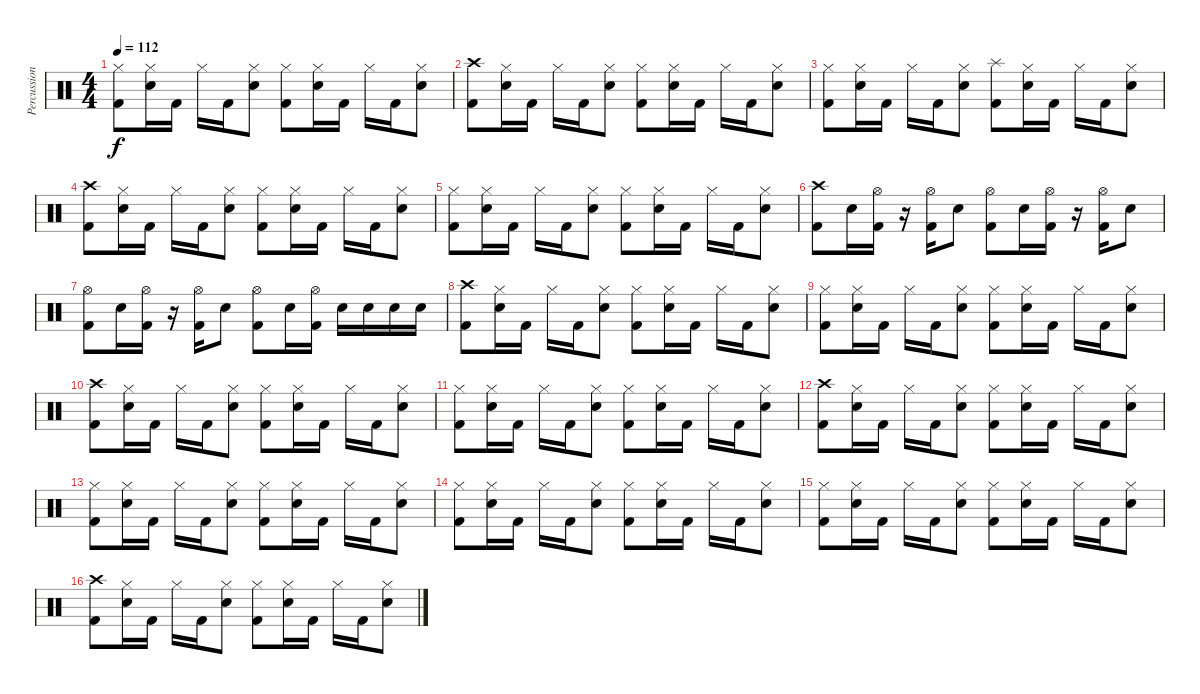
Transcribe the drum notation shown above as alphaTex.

\track ("Percussion" "Percussion") {instrument percussion}
\staff {score}
\articulation defaults
\ts (4 4)
\tempo 112
\clef neutral
\ks c
("Hi-Hat (closed)" "Kick (hit) 2").8{dy f} ("Hi-Hat (closed)" "Snare (hit) 2").16 "Kick (hit) 2".16 "Hi-Hat (closed)".16 "Kick (hit) 2".16 ("Hi-Hat (closed)" "Snare (hit) 2").8 ("Hi-Hat (closed)" "Kick (hit) 2").8 ("Hi-Hat (closed)" "Snare (hit) 2").16 "Kick (hit) 2".16 "Hi-Hat (closed)".16 "Kick (hit) 2".16 ("Hi-Hat (closed)" "Snare (hit) 2").8 |
("Crash high (hit)" "Kick (hit) 2").8 ("Hi-Hat (closed)" "Snare (hit) 2").16 "Kick (hit) 2".16 "Hi-Hat (closed)".16 "Kick (hit) 2".16 ("Hi-Hat (closed)" "Snare (hit) 2").8 ("Hi-Hat (closed)" "Kick (hit) 2").8 ("Hi-Hat (closed)" "Snare (hit) 2").16 "Kick (hit) 2".16 "Hi-Hat (closed)".16 "Kick (hit) 2".16 ("Hi-Hat (closed)" "Snare (hit) 2").8 |
("Hi-Hat (closed)" "Kick (hit) 2").8 ("Hi-Hat (closed)" "Snare (hit) 2").16 "Kick (hit) 2".16 "Hi-Hat (closed)".16 "Kick (hit) 2".16 ("Hi-Hat (closed)" "Snare (hit) 2").8 ("Splash (hit)" "Kick (hit) 2").8 ("Hi-Hat (closed)" "Snare (hit) 2").16 "Kick (hit) 2".16 "Hi-Hat (closed)".16 "Kick (hit) 2".16 ("Hi-Hat (closed)" "Snare (hit) 2").8 |
("Crash high (hit)" "Kick (hit) 2").8 ("Hi-Hat (closed)" "Snare (hit) 2").16 "Kick (hit) 2".16 "Hi-Hat (closed)".16 "Kick (hit) 2".16 ("Hi-Hat (closed)" "Snare (hit) 2").8 ("Hi-Hat (closed)" "Kick (hit) 2").8 ("Hi-Hat (closed)" "Snare (hit) 2").16 "Kick (hit) 2".16 "Hi-Hat (closed)".16 "Kick (hit) 2".16 ("Hi-Hat (closed)" "Snare (hit) 2").8 |
("Hi-Hat (closed)" "Kick (hit) 2").8 ("Hi-Hat (closed)" "Snare (hit) 2").16 "Kick (hit) 2".16 "Hi-Hat (closed)".16 "Kick (hit) 2".16 ("Hi-Hat (closed)" "Snare (hit) 2").8 ("Hi-Hat (closed)" "Kick (hit) 2").8 ("Hi-Hat (closed)" "Snare (hit) 2").16 "Kick (hit) 2".16 "Hi-Hat (closed)".16 "Kick (hit) 2".16 ("Hi-Hat (closed)" "Snare (hit) 2").8 |
("Crash high (hit)" "Kick (hit) 2").8 "Snare (hit) 2".16 ("Hi-Hat (open)" "Kick (hit) 2").16 r.16 ("Hi-Hat (open)" "Kick (hit) 2").16 "Snare (hit) 2".8 ("Hi-Hat (open)" "Kick (hit) 2").8 "Snare (hit) 2".16 ("Hi-Hat (open)" "Kick (hit) 2").16 r.16 ("Hi-Hat (open)" "Kick (hit) 2").16 "Snare (hit) 2".8 |
("Hi-Hat (open)" "Kick (hit) 2").8 "Snare (hit) 2".16 ("Hi-Hat (open)" "Kick (hit) 2").16 r.16 ("Hi-Hat (open)" "Kick (hit) 2").16 "Snare (hit) 2".8 ("Hi-Hat (open)" "Kick (hit) 2").8 "Snare (hit) 2".16 ("Hi-Hat (open)" "Kick (hit) 2").16 "Snare (hit) 2".16 "Snare (hit) 2".16 "Snare (hit) 2".16 "Snare (hit) 2".16 |
("Crash high (hit)" "Kick (hit) 2").8 ("Hi-Hat (closed)" "Snare (hit) 2").16 "Kick (hit) 2".16 "Hi-Hat (closed)".16 "Kick (hit) 2".16 ("Hi-Hat (closed)" "Snare (hit) 2").8 ("Hi-Hat (closed)" "Kick (hit) 2").8 ("Hi-Hat (closed)" "Snare (hit) 2").16 "Kick (hit) 2".16 "Hi-Hat (closed)".16 "Kick (hit) 2".16 ("Hi-Hat (closed)" "Snare (hit) 2").8 |
("Hi-Hat (closed)" "Kick (hit) 2").8 ("Hi-Hat (closed)" "Snare (hit) 2").16 "Kick (hit) 2".16 "Hi-Hat (closed)".16 "Kick (hit) 2".16 ("Hi-Hat (closed)" "Snare (hit) 2").8 ("Hi-Hat (closed)" "Kick (hit) 2").8 ("Hi-Hat (closed)" "Snare (hit) 2").16 "Kick (hit) 2".16 "Hi-Hat (closed)".16 "Kick (hit) 2".16 ("Hi-Hat (closed)" "Snare (hit) 2").8 |
("Crash high (hit)" "Kick (hit) 2").8 ("Hi-Hat (closed)" "Snare (hit) 2").16 "Kick (hit) 2".16 "Hi-Hat (closed)".16 "Kick (hit) 2".16 ("Hi-Hat (closed)" "Snare (hit) 2").8 ("Hi-Hat (closed)" "Kick (hit) 2").8 ("Hi-Hat (closed)" "Snare (hit) 2").16 "Kick (hit) 2".16 "Hi-Hat (closed)".16 "Kick (hit) 2".16 ("Hi-Hat (closed)" "Snare (hit) 2").8 |
("Hi-Hat (closed)" "Kick (hit) 2").8 ("Hi-Hat (closed)" "Snare (hit) 2").16 "Kick (hit) 2".16 "Hi-Hat (closed)".16 "Kick (hit) 2".16 ("Hi-Hat (closed)" "Snare (hit) 2").8 ("Hi-Hat (closed)" "Kick (hit) 2").8 ("Hi-Hat (closed)" "Snare (hit) 2").16 "Kick (hit) 2".16 "Hi-Hat (closed)".16 "Kick (hit) 2".16 ("Hi-Hat (closed)" "Snare (hit) 2").8 |
("Crash high (hit)" "Kick (hit) 2").8 ("Hi-Hat (closed)" "Snare (hit) 2").16 "Kick (hit) 2".16 "Hi-Hat (closed)".16 "Kick (hit) 2".16 ("Hi-Hat (closed)" "Snare (hit) 2").8 ("Hi-Hat (closed)" "Kick (hit) 2").8 ("Hi-Hat (closed)" "Snare (hit) 2").16 "Kick (hit) 2".16 "Hi-Hat (closed)".16 "Kick (hit) 2".16 ("Hi-Hat (closed)" "Snare (hit) 2").8 |
("Hi-Hat (closed)" "Kick (hit) 2").8 ("Hi-Hat (closed)" "Snare (hit) 2").16 "Kick (hit) 2".16 "Hi-Hat (closed)".16 "Kick (hit) 2".16 ("Hi-Hat (closed)" "Snare (hit) 2").8 ("Hi-Hat (closed)" "Kick (hit) 2").8 ("Hi-Hat (closed)" "Snare (hit) 2").16 "Kick (hit) 2".16 "Hi-Hat (closed)".16 "Kick (hit) 2".16 ("Hi-Hat (closed)" "Snare (hit) 2").8 |
("Hi-Hat (closed)" "Kick (hit) 2").8 ("Hi-Hat (closed)" "Snare (hit) 2").16 "Kick (hit) 2".16 "Hi-Hat (closed)".16 "Kick (hit) 2".16 ("Hi-Hat (closed)" "Snare (hit) 2").8 ("Hi-Hat (closed)" "Kick (hit) 2").8 ("Hi-Hat (closed)" "Snare (hit) 2").16 "Kick (hit) 2".16 "Hi-Hat (closed)".16 "Kick (hit) 2".16 ("Hi-Hat (closed)" "Snare (hit) 2").8 |
("Hi-Hat (closed)" "Kick (hit) 2").8 ("Hi-Hat (closed)" "Snare (hit) 2").16 "Kick (hit) 2".16 "Hi-Hat (closed)".16 "Kick (hit) 2".16 ("Hi-Hat (closed)" "Snare (hit) 2").8 ("Hi-Hat (closed)" "Kick (hit) 2").8 ("Hi-Hat (closed)" "Snare (hit) 2").16 "Kick (hit) 2".16 "Hi-Hat (closed)".16 "Kick (hit) 2".16 ("Hi-Hat (closed)" "Snare (hit) 2").8 |
("Crash high (hit)" "Kick (hit) 2").8 ("Hi-Hat (closed)" "Snare (hit) 2").16 "Kick (hit) 2".16 "Hi-Hat (closed)".16 "Kick (hit) 2".16 ("Hi-Hat (closed)" "Snare (hit) 2").8 ("Hi-Hat (closed)" "Kick (hit) 2").8 ("Hi-Hat (closed)" "Snare (hit) 2").16 "Kick (hit) 2".16 "Hi-Hat (closed)".16 "Kick (hit) 2".16 ("Hi-Hat (closed)" "Snare (hit) 2").8
